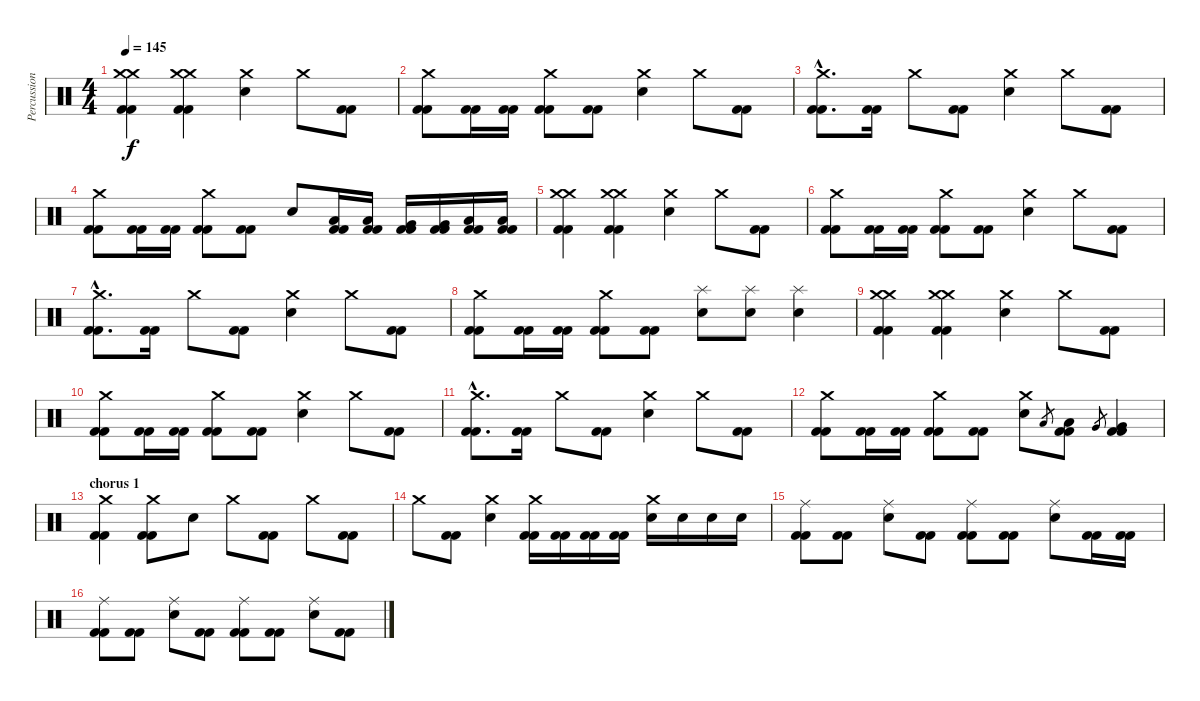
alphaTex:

\track ("Percussion" "Percussion") {instrument percussion}
\staff {score}
\articulation defaults
\ts (4 4)
\tempo 145
\clef neutral
\ks c
("Crash medium (hit)" "Crash medium (hit)" "Kick (hit) 2" "Kick (hit) 2").4{dy f} ("Crash medium (hit)" "Crash medium (hit)" "Kick (hit) 2" "Kick (hit) 2").4 ("Crash medium (hit)" "Electric Snare (hit)").4 "Crash medium (hit)".8 ("Kick (hit) 2" "Kick (hit) 2").8 |
("Crash medium (hit)" "Kick (hit) 2" "Kick (hit) 2").8 ("Kick (hit) 2" "Kick (hit) 2").16 ("Kick (hit) 2" "Kick (hit) 2").16 ("Crash medium (hit)" "Kick (hit) 2" "Kick (hit) 2").8 ("Kick (hit) 2" "Kick (hit) 2").8 ("Crash medium (hit)" "Electric Snare (hit)").4 "Crash medium (hit)".8 ("Kick (hit) 2" "Kick (hit) 2").8 |
("Crash medium (hit)"{hac} "Kick (hit) 2"{hac} "Kick (hit) 2"{hac}).8{d} ("Kick (hit) 2" "Kick (hit) 2").16 "Crash medium (hit)".8 ("Kick (hit) 2" "Kick (hit) 2").8 ("Crash medium (hit)" "Electric Snare (hit)").4 "Crash medium (hit)".8 ("Kick (hit) 2" "Kick (hit) 2").8 |
("Crash medium (hit)" "Kick (hit) 2" "Kick (hit) 2").8 ("Kick (hit) 2" "Kick (hit) 2").16 ("Kick (hit) 2" "Kick (hit) 2").16 ("Crash medium (hit)" "Kick (hit) 2" "Kick (hit) 2").8 ("Kick (hit) 2" "Kick (hit) 2").8 "Electric Snare (hit)".8 ("Low Tom (hit)" "Kick (hit) 2" "Kick (hit) 2").16 ("Low Tom (hit)" "Kick (hit) 2" "Kick (hit) 2").16 ("Very Low Tom (hit)" "Kick (hit) 2" "Kick (hit) 2").16 ("Very Low Tom (hit)" "Kick (hit) 2" "Kick (hit) 2").16 ("Low Floor Tom (hit)" "Kick (hit) 2" "Kick (hit) 2").16 ("Low Floor Tom (hit)" "Kick (hit) 2" "Kick (hit) 2").16 |
("Crash medium (hit)" "Crash medium (hit)" "Kick (hit) 2" "Kick (hit) 2").4 ("Crash medium (hit)" "Crash medium (hit)" "Kick (hit) 2" "Kick (hit) 2").4 ("Crash medium (hit)" "Electric Snare (hit)").4 "Crash medium (hit)".8 ("Kick (hit) 2" "Kick (hit) 2").8 |
("Crash medium (hit)" "Kick (hit) 2" "Kick (hit) 2").8 ("Kick (hit) 2" "Kick (hit) 2").16 ("Kick (hit) 2" "Kick (hit) 2").16 ("Crash medium (hit)" "Kick (hit) 2" "Kick (hit) 2").8 ("Kick (hit) 2" "Kick (hit) 2").8 ("Crash medium (hit)" "Electric Snare (hit)").4 "Crash medium (hit)".8 ("Kick (hit) 2" "Kick (hit) 2").8 |
("Crash medium (hit)"{hac} "Kick (hit) 2"{hac} "Kick (hit) 2"{hac}).8{d} ("Kick (hit) 2" "Kick (hit) 2").16 "Crash medium (hit)".8 ("Kick (hit) 2" "Kick (hit) 2").8 ("Crash medium (hit)" "Electric Snare (hit)").4 "Crash medium (hit)".8 ("Kick (hit) 2" "Kick (hit) 2").8 |
("Crash medium (hit)" "Kick (hit) 2" "Kick (hit) 2").8 ("Kick (hit) 2" "Kick (hit) 2").16 ("Kick (hit) 2" "Kick (hit) 2").16 ("Crash medium (hit)" "Kick (hit) 2" "Kick (hit) 2").8 ("Kick (hit) 2" "Kick (hit) 2").8 ("Splash (hit)" "Electric Snare (hit)").8 ("Splash (hit)" "Electric Snare (hit)").8 ("Splash (hit)" "Electric Snare (hit)").4 |
("Crash medium (hit)" "Crash medium (hit)" "Kick (hit) 2" "Kick (hit) 2").4 ("Crash medium (hit)" "Crash medium (hit)" "Kick (hit) 2" "Kick (hit) 2").4 ("Crash medium (hit)" "Electric Snare (hit)").4 "Crash medium (hit)".8 ("Kick (hit) 2" "Kick (hit) 2").8 |
("Crash medium (hit)" "Kick (hit) 2" "Kick (hit) 2").8 ("Kick (hit) 2" "Kick (hit) 2").16 ("Kick (hit) 2" "Kick (hit) 2").16 ("Crash medium (hit)" "Kick (hit) 2" "Kick (hit) 2").8 ("Kick (hit) 2" "Kick (hit) 2").8 ("Crash medium (hit)" "Electric Snare (hit)").4 "Crash medium (hit)".8 ("Kick (hit) 2" "Kick (hit) 2").8 |
("Crash medium (hit)"{hac} "Kick (hit) 2"{hac} "Kick (hit) 2"{hac}).8{d} ("Kick (hit) 2" "Kick (hit) 2").16 "Crash medium (hit)".8 ("Kick (hit) 2" "Kick (hit) 2").8 ("Crash medium (hit)" "Electric Snare (hit)").4 "Crash medium (hit)".8 ("Kick (hit) 2" "Kick (hit) 2").8 |
("Crash medium (hit)" "Kick (hit) 2" "Kick (hit) 2").8 ("Kick (hit) 2" "Kick (hit) 2").16 ("Kick (hit) 2" "Kick (hit) 2").16 ("Crash medium (hit)" "Kick (hit) 2" "Kick (hit) 2").8 ("Kick (hit) 2" "Kick (hit) 2").8 ("Crash medium (hit)" "Electric Snare (hit)").8 "Low Tom (hit)".8{gr} ("Low Tom (hit)" "Kick (hit) 2" "Kick (hit) 2").8 "Very Low Tom (hit)".8{gr} ("Very Low Tom (hit)" "Kick (hit) 2" "Kick (hit) 2").4 |
\section ("" "chorus 1")
("Crash medium (hit)" "Kick (hit) 2" "Kick (hit) 2").4 ("Crash medium (hit)" "Kick (hit) 2" "Kick (hit) 2").8 "Electric Snare (hit)".8 "Crash medium (hit)".8 ("Kick (hit) 2" "Kick (hit) 2").8 "Crash medium (hit)".8 ("Kick (hit) 2" "Kick (hit) 2").8 |
"Crash medium (hit)".8 ("Kick (hit) 2" "Kick (hit) 2").8 ("Crash medium (hit)" "Electric Snare (hit)").4 ("Crash medium (hit)" "Kick (hit) 2" "Kick (hit) 2").16 ("Kick (hit) 2" "Kick (hit) 2").16 ("Kick (hit) 2" "Kick (hit) 2").16 ("Kick (hit) 2" "Kick (hit) 2").16 ("Crash medium (hit)" "Electric Snare (hit)").16 "Electric Snare (hit)".16 "Electric Snare (hit)".16 "Electric Snare (hit)".16 |
("Ride (middle)" "Kick (hit) 2" "Kick (hit) 2").8 ("Kick (hit) 2" "Kick (hit) 2").8 ("Ride (middle)" "Electric Snare (hit)").8 ("Kick (hit) 2" "Kick (hit) 2").8 ("Ride (middle)" "Kick (hit) 2" "Kick (hit) 2").8 ("Kick (hit) 2" "Kick (hit) 2").8 ("Ride (middle)" "Electric Snare (hit)").8 ("Kick (hit) 2" "Kick (hit) 2").16 ("Kick (hit) 2" "Kick (hit) 2").16 |
("Ride (middle)" "Kick (hit) 2" "Kick (hit) 2").8 ("Kick (hit) 2" "Kick (hit) 2").8 ("Ride (middle)" "Electric Snare (hit)").8 ("Kick (hit) 2" "Kick (hit) 2").8 ("Ride (middle)" "Kick (hit) 2" "Kick (hit) 2").8 ("Kick (hit) 2" "Kick (hit) 2").8 ("Ride (middle)" "Electric Snare (hit)").8 ("Kick (hit) 2" "Kick (hit) 2").8
